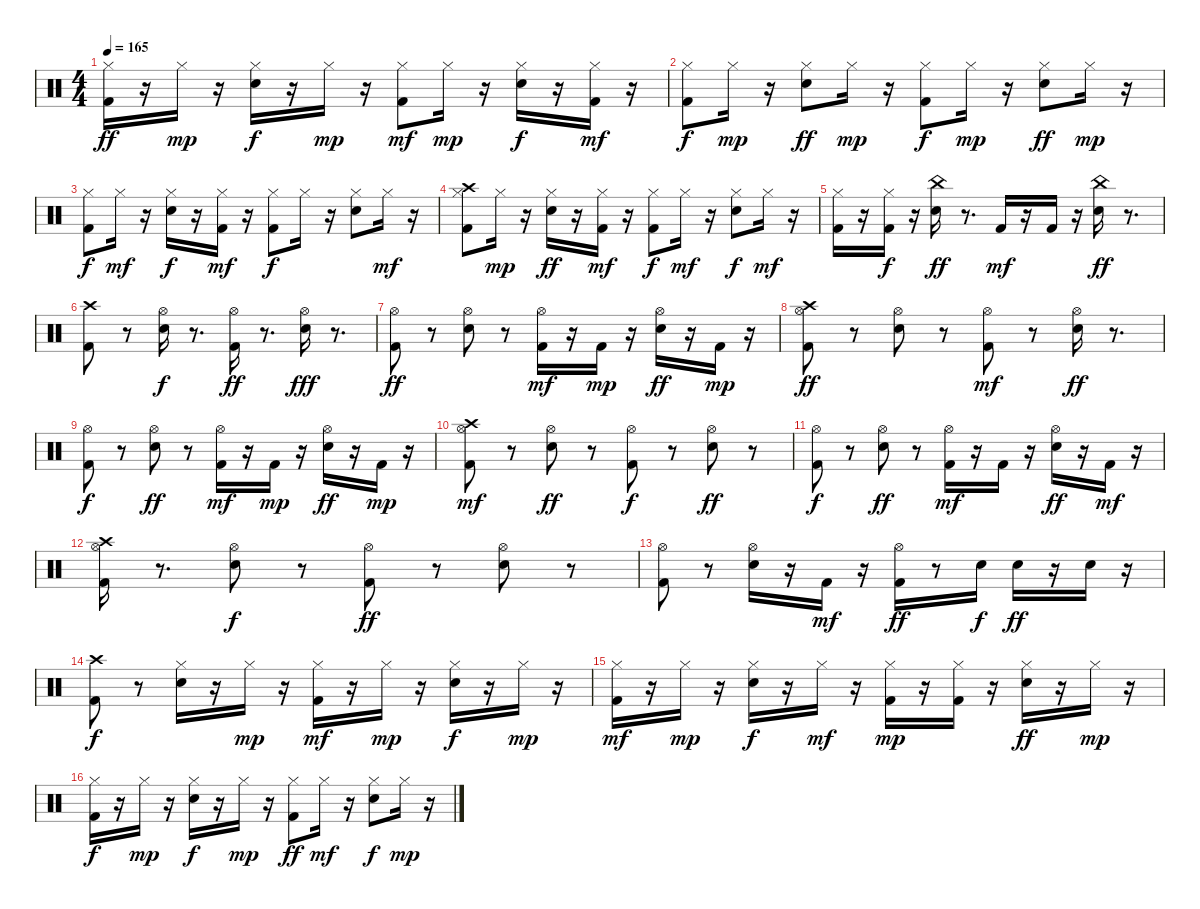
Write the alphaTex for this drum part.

\track "" {instrument percussion}
\staff {score}
\articulation defaults
\ts (4 4)
\tempo 165
\clef neutral
\ks c
("Kick (hit) 2" "Hi-Hat (closed)").16{dy ff} r.16 "Hi-Hat (closed)".16{dy mp} r.16 ("Hi-Hat (closed)" "Electric Snare (hit)").16{dy f} r.16 "Hi-Hat (closed)".16{dy mp} r.16 ("Kick (hit) 2" "Hi-Hat (closed)").8{dy mf} "Hi-Hat (closed)".16{dy mp} r.16 ("Electric Snare (hit)" "Hi-Hat (closed)").16{dy f} r.16 ("Hi-Hat (closed)" "Kick (hit) 2").16{dy mf} r.16 |
("Kick (hit) 2" "Hi-Hat (closed)").8{dy f} "Hi-Hat (closed)".16{dy mp} r.16 ("Electric Snare (hit)" "Hi-Hat (closed)").8{dy ff} "Hi-Hat (closed)".16{dy mp} r.16 ("Kick (hit) 2" "Hi-Hat (closed)").8{dy f} "Hi-Hat (closed)".16{dy mp} r.16 ("Hi-Hat (closed)" "Electric Snare (hit)").8{dy ff} "Hi-Hat (closed)".16{dy mp} r.16 |
("Kick (hit) 2" "Hi-Hat (closed)").8{dy f} "Hi-Hat (closed)".16{dy mf} r.16 ("Electric Snare (hit)" "Hi-Hat (closed)").16{dy f} r.16 ("Hi-Hat (closed)" "Kick (hit) 2").16{dy mf} r.16 ("Hi-Hat (closed)" "Kick (hit) 2").8{dy f} "Hi-Hat (closed)".16 r.16 ("Electric Snare (hit)" "Hi-Hat (closed)").8 "Hi-Hat (closed)".16{dy mf} r.16 |
("Hi-Hat (closed)" "Crash high (hit)" "Kick (hit) 2").8 "Hi-Hat (closed)".16{dy mp} r.16 ("Electric Snare (hit)" "Hi-Hat (closed)").16{dy ff} r.16 ("Kick (hit) 2" "Hi-Hat (closed)").16{dy mf} r.16 ("Kick (hit) 2" "Hi-Hat (closed)").8{dy f} "Hi-Hat (closed)".16{dy mf} r.16 ("Hi-Hat (closed)" "Electric Snare (hit)").8{dy f} "Hi-Hat (closed)".16{dy mf} r.16 |
("Hi-Hat (closed)" "Kick (hit) 2").16 r.16 ("Kick (hit) 2" "Hi-Hat (closed)").16{dy f} r.16 ("Electric Snare (hit)" "China (hit)").16{dy ff} r.8{d} "Kick (hit) 2".16{dy mf} r.16 "Kick (hit) 2".16 r.16 ("China (hit)" "Electric Snare (hit)").16{dy ff} r.8{d} |
("Crash high (hit)" "Kick (hit) 2").8 r.8 ("Hi-Hat (open)" "Electric Snare (hit)").16{dy f} r.8{d} ("Kick (hit) 2" "Hi-Hat (open)").16{dy ff} r.8{d} ("Electric Snare (hit)" "Hi-Hat (open)").16{dy fff} r.8{d} |
("Kick (hit) 2" "Hi-Hat (open)").8{dy ff} r.8 ("Electric Snare (hit)" "Hi-Hat (open)").8 r.8 ("Kick (hit) 2" "Hi-Hat (open)").16{dy mf} r.16 "Kick (hit) 2".16{dy mp} r.16 ("Hi-Hat (open)" "Electric Snare (hit)").16{dy ff} r.16 "Kick (hit) 2".16{dy mp} r.16 |
("Crash high (hit)" "Kick (hit) 2" "Hi-Hat (open)").8{dy ff} r.8 ("Hi-Hat (open)" "Electric Snare (hit)").8 r.8 ("Hi-Hat (open)" "Kick (hit) 2").8{dy mf} r.8 ("Hi-Hat (open)" "Electric Snare (hit)").16{dy ff} r.8{d} |
("Hi-Hat (open)" "Kick (hit) 2").8{dy f} r.8 ("Electric Snare (hit)" "Hi-Hat (open)").8{dy ff} r.8 ("Hi-Hat (open)" "Kick (hit) 2").16{dy mf} r.16 "Kick (hit) 2".16{dy mp} r.16 ("Electric Snare (hit)" "Hi-Hat (open)").16{dy ff} r.16 "Kick (hit) 2".16{dy mp} r.16 |
("Hi-Hat (open)" "Kick (hit) 2" "Crash high (hit)").8{dy mf} r.8 ("Hi-Hat (open)" "Electric Snare (hit)").8{dy ff} r.8 ("Kick (hit) 2" "Hi-Hat (open)").8{dy f} r.8 ("Hi-Hat (open)" "Electric Snare (hit)").8{dy ff} r.8 |
("Kick (hit) 2" "Hi-Hat (open)").8{dy f} r.8 ("Electric Snare (hit)" "Hi-Hat (open)").8{dy ff} r.8 ("Kick (hit) 2" "Hi-Hat (open)").16{dy mf} r.16 "Kick (hit) 2".16 r.16 ("Electric Snare (hit)" "Hi-Hat (open)").16{dy ff} r.16 "Kick (hit) 2".16{dy mf} r.16 |
("Kick (hit) 2" "Hi-Hat (open)" "Crash high (hit)").16 r.8{d} ("Electric Snare (hit)" "Hi-Hat (open)").8{dy f} r.8 ("Kick (hit) 2" "Hi-Hat (open)").8{dy ff} r.8 ("Hi-Hat (open)" "Electric Snare (hit)").8 r.8 |
("Kick (hit) 2" "Hi-Hat (open)").8 r.8 ("Hi-Hat (open)" "Electric Snare (hit)").16 r.16 "Kick (hit) 2".16{dy mf} r.16 ("Hi-Hat (open)" "Kick (hit) 2").16{dy ff} r.8 "Electric Snare (hit)".16{dy f} "Electric Snare (hit)".16{dy ff} r.16 "Electric Snare (hit)".16 r.16 |
("Kick (hit) 2" "Crash high (hit)").8{dy f} r.8 ("Hi-Hat (closed)" "Electric Snare (hit)").16 r.16 "Hi-Hat (closed)".16{dy mp} r.16 ("Hi-Hat (closed)" "Kick (hit) 2").16{dy mf} r.16 "Hi-Hat (closed)".16{dy mp} r.16 ("Hi-Hat (closed)" "Electric Snare (hit)").16{dy f} r.16 "Hi-Hat (closed)".16{dy mp} r.16 |
("Hi-Hat (closed)" "Kick (hit) 2").16{dy mf} r.16 "Hi-Hat (closed)".16{dy mp} r.16 ("Electric Snare (hit)" "Hi-Hat (closed)").16{dy f} r.16 "Hi-Hat (closed)".16{dy mf} r.16 ("Hi-Hat (closed)" "Kick (hit) 2").16{dy mp} r.16 ("Hi-Hat (closed)" "Kick (hit) 2").16 r.16 ("Electric Snare (hit)" "Hi-Hat (closed)").16{dy ff} r.16 "Hi-Hat (closed)".16{dy mp} r.16 |
("Hi-Hat (closed)" "Kick (hit) 2").16{dy f} r.16 "Hi-Hat (closed)".16{dy mp} r.16 ("Hi-Hat (closed)" "Electric Snare (hit)").16{dy f} r.16 "Hi-Hat (closed)".16{dy mp} r.16 ("Kick (hit) 2" "Hi-Hat (closed)").8{dy ff} "Hi-Hat (closed)".16{dy mf} r.16 ("Electric Snare (hit)" "Hi-Hat (closed)").8{dy f} "Hi-Hat (closed)".16{dy mp} r.16
